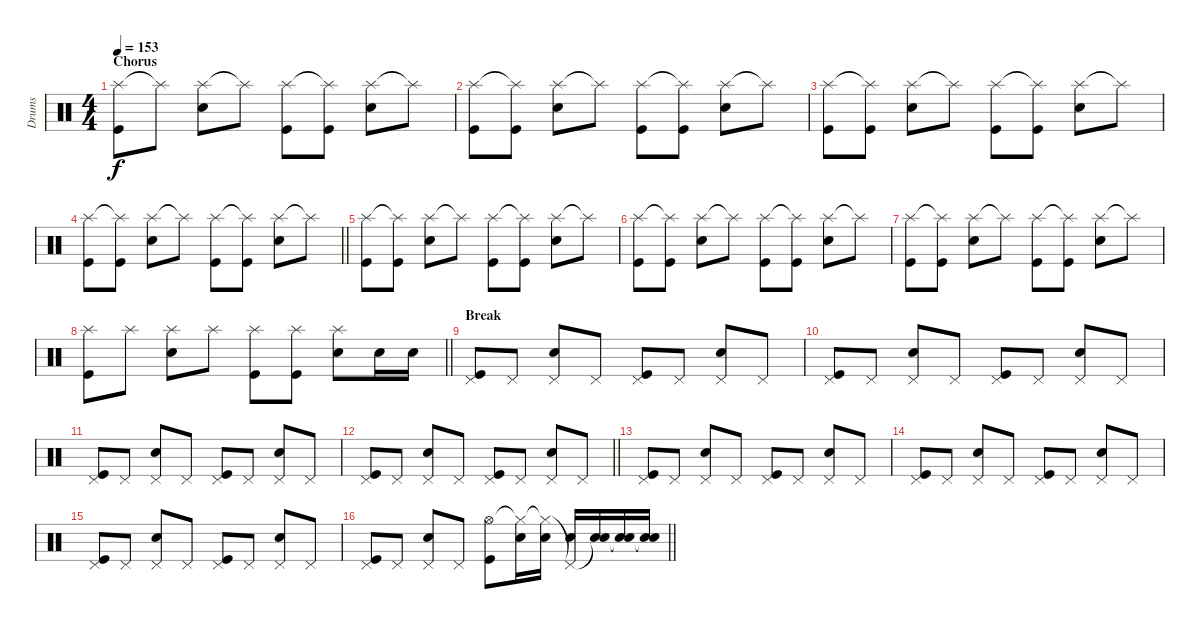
\track ("Drums" "Drums") {instrument percussion}
\staff {score}
\articulation defaults
\ts (4 4)
\section ("" "Chorus")
\tempo 153
\clef neutral
\ks c
("Splash (hit)" "Kick (hit)").8{dy f} "Splash (hit)"{t}.8 ("Splash (hit)" "Snare (hit) 2").8 "Splash (hit)"{t}.8 ("Splash (hit)" "Kick (hit)").8 ("Splash (hit)"{t} "Kick (hit)").8 ("Splash (hit)" "Snare (hit) 2").8 "Splash (hit)"{t}.8 |
("Splash (hit)" "Kick (hit)").8 ("Splash (hit)"{t} "Kick (hit)").8 ("Splash (hit)" "Snare (hit) 2").8 "Splash (hit)"{t}.8 ("Splash (hit)" "Kick (hit)").8 ("Splash (hit)"{t} "Kick (hit)").8 ("Splash (hit)" "Snare (hit) 2").8 "Splash (hit)"{t}.8 |
("Splash (hit)" "Kick (hit)").8 ("Splash (hit)"{t} "Kick (hit)").8 ("Splash (hit)" "Snare (hit) 2").8 "Splash (hit)"{t}.8 ("Splash (hit)" "Kick (hit)").8 ("Splash (hit)"{t} "Kick (hit)").8 ("Splash (hit)" "Snare (hit) 2").8 "Splash (hit)"{t}.8 |
\barLineRight lightlight
("Splash (hit)" "Kick (hit)").8 ("Splash (hit)"{t} "Kick (hit)").8 ("Splash (hit)" "Snare (hit) 2").8 "Splash (hit)"{t}.8 ("Splash (hit)" "Kick (hit)").8 ("Splash (hit)"{t} "Kick (hit)").8 ("Splash (hit)" "Snare (hit) 2").8 "Splash (hit)"{t}.8 |
("Splash (hit)" "Kick (hit)").8 ("Splash (hit)"{t} "Kick (hit)").8 ("Splash (hit)" "Snare (hit) 2").8 "Splash (hit)"{t}.8 ("Splash (hit)" "Kick (hit)").8 ("Splash (hit)"{t} "Kick (hit)").8 ("Splash (hit)" "Snare (hit) 2").8 "Splash (hit)"{t}.8 |
("Splash (hit)" "Kick (hit)").8 ("Splash (hit)"{t} "Kick (hit)").8 ("Splash (hit)" "Snare (hit) 2").8 "Splash (hit)"{t}.8 ("Splash (hit)" "Kick (hit)").8 ("Splash (hit)"{t} "Kick (hit)").8 ("Splash (hit)" "Snare (hit) 2").8 "Splash (hit)"{t}.8 |
("Splash (hit)" "Kick (hit)").8 ("Splash (hit)"{t} "Kick (hit)").8 ("Splash (hit)" "Snare (hit) 2").8 "Splash (hit)"{t}.8 ("Splash (hit)" "Kick (hit)").8 ("Splash (hit)"{t} "Kick (hit)").8 ("Splash (hit)" "Snare (hit) 2").8 "Splash (hit)"{t}.8 |
\barLineRight lightlight
("Splash (hit)" "Kick (hit)").8 "Splash (hit)".8 ("Splash (hit)" "Snare (hit) 2").8 "Splash (hit)".8 ("Splash (hit)" "Kick (hit)").8 ("Splash (hit)" "Kick (hit)").8 ("Splash (hit)" "Snare (hit) 2").8 "Snare (hit) 2".16 "Snare (hit) 2".16 |
\section ("" "Break")
("Pedal Hi-Hat (hit)" "Kick (hit)").8 "Pedal Hi-Hat (hit)".8 ("Pedal Hi-Hat (hit)" "Snare (hit) 2").8 "Pedal Hi-Hat (hit)".8 ("Pedal Hi-Hat (hit)" "Kick (hit)").8 "Pedal Hi-Hat (hit)".8 ("Pedal Hi-Hat (hit)" "Snare (hit) 2").8 "Pedal Hi-Hat (hit)".8 |
("Pedal Hi-Hat (hit)" "Kick (hit)").8 "Pedal Hi-Hat (hit)".8 ("Pedal Hi-Hat (hit)" "Snare (hit) 2").8 "Pedal Hi-Hat (hit)".8 ("Pedal Hi-Hat (hit)" "Kick (hit)").8 "Pedal Hi-Hat (hit)".8 ("Pedal Hi-Hat (hit)" "Snare (hit) 2").8 "Pedal Hi-Hat (hit)".8 |
("Pedal Hi-Hat (hit)" "Kick (hit)").8 "Pedal Hi-Hat (hit)".8 ("Pedal Hi-Hat (hit)" "Snare (hit) 2").8 "Pedal Hi-Hat (hit)".8 ("Pedal Hi-Hat (hit)" "Kick (hit)").8 "Pedal Hi-Hat (hit)".8 ("Pedal Hi-Hat (hit)" "Snare (hit) 2").8 "Pedal Hi-Hat (hit)".8 |
\barLineRight lightlight
("Pedal Hi-Hat (hit)" "Kick (hit)").8 "Pedal Hi-Hat (hit)".8 ("Pedal Hi-Hat (hit)" "Snare (hit) 2").8 "Pedal Hi-Hat (hit)".8 ("Pedal Hi-Hat (hit)" "Kick (hit)").8 "Pedal Hi-Hat (hit)".8 ("Pedal Hi-Hat (hit)" "Snare (hit) 2").8 "Pedal Hi-Hat (hit)".8 |
("Pedal Hi-Hat (hit)" "Kick (hit)").8 "Pedal Hi-Hat (hit)".8 ("Pedal Hi-Hat (hit)" "Snare (hit) 2").8 "Pedal Hi-Hat (hit)".8 ("Pedal Hi-Hat (hit)" "Kick (hit)").8 "Pedal Hi-Hat (hit)".8 ("Pedal Hi-Hat (hit)" "Snare (hit) 2").8 "Pedal Hi-Hat (hit)".8 |
("Pedal Hi-Hat (hit)" "Kick (hit)").8 "Pedal Hi-Hat (hit)".8 ("Pedal Hi-Hat (hit)" "Snare (hit) 2").8 "Pedal Hi-Hat (hit)".8 ("Pedal Hi-Hat (hit)" "Kick (hit)").8 "Pedal Hi-Hat (hit)".8 ("Pedal Hi-Hat (hit)" "Snare (hit) 2").8 "Pedal Hi-Hat (hit)".8 |
("Pedal Hi-Hat (hit)" "Kick (hit)").8 "Pedal Hi-Hat (hit)".8 ("Pedal Hi-Hat (hit)" "Snare (hit) 2").8 "Pedal Hi-Hat (hit)".8 ("Pedal Hi-Hat (hit)" "Kick (hit)").8 "Pedal Hi-Hat (hit)".8 ("Pedal Hi-Hat (hit)" "Snare (hit) 2").8 "Pedal Hi-Hat (hit)".8 |
\barLineRight lightlight
("Pedal Hi-Hat (hit)" "Kick (hit)").8 "Pedal Hi-Hat (hit)".8 ("Pedal Hi-Hat (hit)" "Snare (hit) 2").8 "Pedal Hi-Hat (hit)".8 ("Hi-Hat (open)" "Kick (hit)").8 ("Hi-Hat (closed)"{t} "Snare (hit) 2").16 ("Hi-Hat (closed)"{t} "Snare (hit) 2").16 ("Pedal Hi-Hat (hit)"{t} "Snare (hit) 2").16 ("Snare (hit)"{t} "Snare (hit) 2").16 ("Snare (hit)"{t} "Snare (hit) 2").16 ("Snare (hit)"{t} "Snare (hit) 2").16
